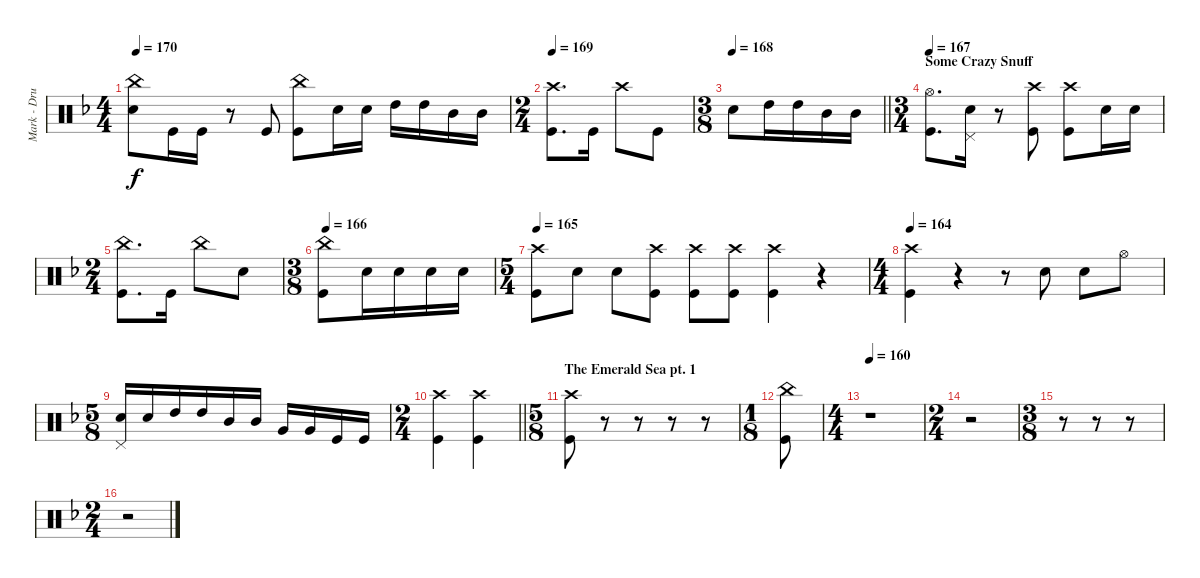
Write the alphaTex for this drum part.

\track ("Mark - Drums" "Mark - Dru") {instrument percussion}
\staff {score}
\articulation defaults
\ts (4 4)
\tempo 170
\clef neutral
\ks dminor
("Snare (hit) 2" "China (hit)").8{dy f} "Kick (hit)".16 "Kick (hit)".16 r.8 "Kick (hit)".8 ("Kick (hit)" "China (hit)").8 "Snare (hit) 2".16 "Snare (hit) 2".16 "High Tom (hit)".16 "High Tom (hit)".16 "Mid Tom (hit)".16 "Mid Tom (hit)".16 |
\ts (2 4)
\tempo 169
("Kick (hit)" "Crash high (hit)").8{d} "Kick (hit)".16 "Crash high (hit)".8 "Kick (hit)".8 |
\ts (3 8)
\tempo 168
\barLineRight lightlight "Snare (hit) 2".8 "High Tom (hit)".16 "High Tom (hit)".16 "Mid Tom (hit)".16 "Mid Tom (hit)".16
|
\ts (3 4)
\section ("" "Some Crazy Snuff")
\tempo 167
("Kick (hit)" "Hi-Hat (open)").8{d} ("Snare (hit) 2" "Pedal Hi-Hat (hit)").16 r.8 ("Kick (hit)" "Crash high (hit)").8 ("Kick (hit)" "Crash high (hit)").8 "Snare (hit) 2".16 "Snare (hit) 2".16 |
\ts (2 4)
("Kick (hit)" "China (hit)").8{d} "Kick (hit)".16 "China (hit)".8 "Snare (hit) 2".8 |
\ts (3 8)
\tempo 166
("China (hit)" "Kick (hit)").8 "Snare (hit) 2".16 "Snare (hit) 2".16 "Snare (hit) 2".16 "Snare (hit) 2".16 |
\ts (5 4)
\tempo 165
("Kick (hit)" "Crash high (hit)").8 "Snare (hit) 2".8 "Snare (hit) 2".8 ("Kick (hit)" "Crash high (hit)").8 ("Kick (hit)" "Crash high (hit)").8 ("Kick (hit)" "Crash high (hit)").8 ("Kick (hit)" "Crash high (hit)").4 r.4 |
\ts (4 4)
\tempo 164
("Kick (hit)" "Crash high (hit)").4 r.4 r.8 "Snare (hit) 2".8 "Snare (hit) 2".8 "Hi-Hat (open)".8 |
\ts (5 8)
("Snare (hit) 2" "Pedal Hi-Hat (hit)").16 "Snare (hit) 2".16 "High Tom (hit)".16 "High Tom (hit)".16 "Mid Tom (hit)".16 "Mid Tom (hit)".16 "Very Low Tom (hit)".16 "Very Low Tom (hit)".16 "Kick (hit)".16 "Kick (hit)".16 |
\ts (2 4)
\barLineRight lightlight
("Kick (hit)" "Crash high (hit)").4 ("Kick (hit)" "Crash high (hit)").4 |
\ts (5 8)
\section ("" "The Emerald Sea pt. 1")
("Crash high (hit)" "Kick (hit)").8 r.8 r.8 r.8 r.8 |
\ts (1 8)
("Kick (hit)" "China (hit)").8 |
\ts (4 4)
\tempo 160
r.1 |
\ts (2 4)
r.2 |
\ts (3 8)
r.8 r.8 r.8 |
\ts (2 4)
r.2
